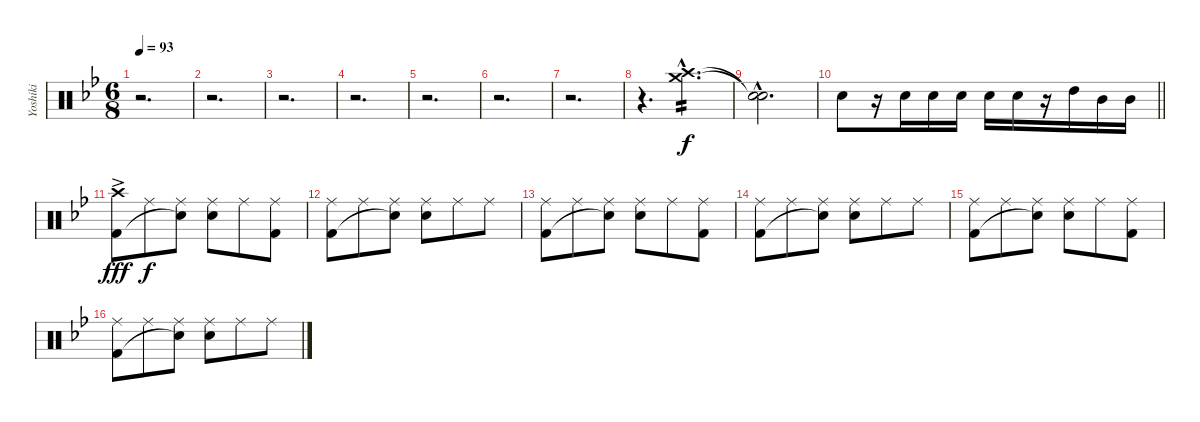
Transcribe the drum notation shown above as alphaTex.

\track ("Yoshiki" "Yoshiki") {instrument percussion}
\staff {score}
\articulation defaults
\ts (6 8)
\tempo 93
\clef neutral
\ks bb
r.2{d dy f} |
r.2{d} |
r.2{d} |
r.2{d} |
r.2{d} |
r.2{d} |
r.2{d} |
r.4{d} ("Crash high (hit)"{hac} "Crash medium (hit)"{hac}).4{d tp 2 volume 7} |
("Snare (hit)"{hac t} "Snare (hit)"{hac t}).2{d volume 5} |
\barLineRight lightlight "Snare (hit) 2".8{volume 12}
r.16 "Snare (hit) 2".16 "Snare (hit) 2".16 "Snare (hit) 2".16 "Snare (hit) 2".16 "Snare (hit) 2".16 r.16 "High Tom (hit)".16 "Mid Tom (hit)".16 "Mid Tom (hit)".16 |
("Crash high (hit)"{ac} "Kick (hit) 2"{ac}).8{dy fff volume 12} "Ride (middle)".8{dy f} ("Ride (middle)" "Snare (hit)"{t}).8 ("Ride (middle)" "Snare (hit) 2").8 "Ride (middle)".8 ("Ride (middle)" "Kick (hit) 2").8 |
("Ride (middle)" "Kick (hit) 2").8 "Ride (middle)".8 ("Ride (middle)" "Snare (hit)"{t}).8 ("Ride (middle)" "Snare (hit) 2").8 "Ride (middle)".8 "Ride (middle)".8 |
("Ride (middle)" "Kick (hit) 2").8 "Ride (middle)".8 ("Ride (middle)" "Snare (hit)"{t}).8 ("Ride (middle)" "Snare (hit) 2").8 "Ride (middle)".8 ("Ride (middle)" "Kick (hit) 2").8 |
("Ride (middle)" "Kick (hit) 2").8 "Ride (middle)".8 ("Ride (middle)" "Snare (hit)"{t}).8 ("Ride (middle)" "Snare (hit) 2").8 "Ride (middle)".8 "Ride (middle)".8 |
("Ride (middle)" "Kick (hit) 2").8 "Ride (middle)".8 ("Ride (middle)" "Snare (hit)"{t}).8 ("Ride (middle)" "Snare (hit) 2").8 "Ride (middle)".8 ("Ride (middle)" "Kick (hit) 2").8 |
("Ride (middle)" "Kick (hit) 2").8 "Ride (middle)".8 ("Ride (middle)" "Snare (hit)"{t}).8 ("Ride (middle)" "Snare (hit) 2").8 "Ride (middle)".8 "Ride (middle)".8
